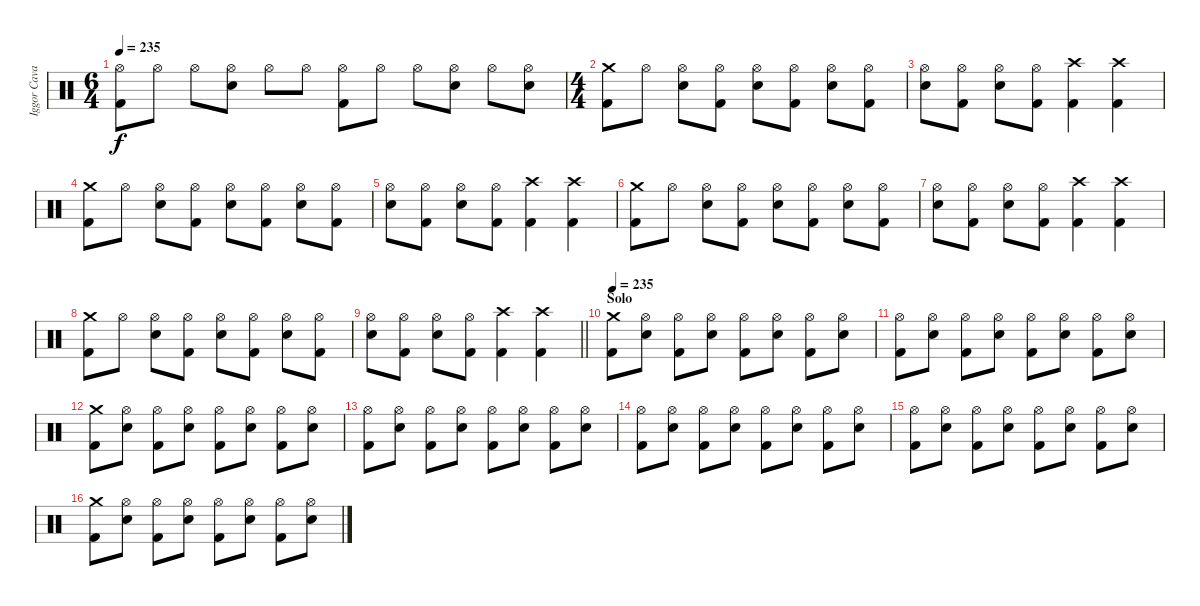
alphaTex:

\track ("Iggor Cavalera" "Iggor Cava") {instrument percussion}
\staff {score}
\articulation defaults
\ts (6 4)
\tempo 235
\clef neutral
\ks c
("Hi-Hat (open)" "Kick (hit) 2").8{dy f} "Hi-Hat (open)".8 "Hi-Hat (open)".8 ("Hi-Hat (open)" "Snare (hit) 2").8 "Hi-Hat (open)".8 "Hi-Hat (open)".8 ("Hi-Hat (open)" "Kick (hit) 2").8 "Hi-Hat (open)".8 "Hi-Hat (open)".8 ("Hi-Hat (open)" "Snare (hit) 2").8 "Hi-Hat (open)".8 ("Hi-Hat (open)" "Snare (hit) 2").8 |
\ts (4 4)
("Crash medium (hit)" "Kick (hit) 2").8 "Hi-Hat (open)".8 ("Hi-Hat (open)" "Snare (hit) 2").8 ("Hi-Hat (open)" "Kick (hit) 2").8 ("Hi-Hat (open)" "Snare (hit) 2").8 ("Hi-Hat (open)" "Kick (hit) 2").8 ("Hi-Hat (open)" "Snare (hit) 2").8 ("Hi-Hat (open)" "Kick (hit) 2").8 |
("Hi-Hat (open)" "Snare (hit) 2").8 ("Hi-Hat (open)" "Kick (hit) 2").8 ("Hi-Hat (open)" "Snare (hit) 2").8 ("Hi-Hat (open)" "Kick (hit) 2").8 ("Crash high (hit)" "Kick (hit) 2").4 ("Crash high (hit)" "Kick (hit) 2").4 |
("Crash medium (hit)" "Kick (hit) 2").8 "Hi-Hat (open)".8 ("Hi-Hat (open)" "Snare (hit) 2").8 ("Hi-Hat (open)" "Kick (hit) 2").8 ("Hi-Hat (open)" "Snare (hit) 2").8 ("Hi-Hat (open)" "Kick (hit) 2").8 ("Hi-Hat (open)" "Snare (hit) 2").8 ("Hi-Hat (open)" "Kick (hit) 2").8 |
("Hi-Hat (open)" "Snare (hit) 2").8 ("Hi-Hat (open)" "Kick (hit) 2").8 ("Hi-Hat (open)" "Snare (hit) 2").8 ("Hi-Hat (open)" "Kick (hit) 2").8 ("Crash high (hit)" "Kick (hit) 2").4 ("Crash high (hit)" "Kick (hit) 2").4 |
("Crash medium (hit)" "Kick (hit) 2").8 "Hi-Hat (open)".8 ("Hi-Hat (open)" "Snare (hit) 2").8 ("Hi-Hat (open)" "Kick (hit) 2").8 ("Hi-Hat (open)" "Snare (hit) 2").8 ("Hi-Hat (open)" "Kick (hit) 2").8 ("Hi-Hat (open)" "Snare (hit) 2").8 ("Hi-Hat (open)" "Kick (hit) 2").8 |
("Hi-Hat (open)" "Snare (hit) 2").8 ("Hi-Hat (open)" "Kick (hit) 2").8 ("Hi-Hat (open)" "Snare (hit) 2").8 ("Hi-Hat (open)" "Kick (hit) 2").8 ("Crash high (hit)" "Kick (hit) 2").4 ("Crash high (hit)" "Kick (hit) 2").4 |
("Crash medium (hit)" "Kick (hit) 2").8 "Hi-Hat (open)".8 ("Hi-Hat (open)" "Snare (hit) 2").8 ("Hi-Hat (open)" "Kick (hit) 2").8 ("Hi-Hat (open)" "Snare (hit) 2").8 ("Hi-Hat (open)" "Kick (hit) 2").8 ("Hi-Hat (open)" "Snare (hit) 2").8 ("Hi-Hat (open)" "Kick (hit) 2").8 |
\barLineRight lightlight
("Hi-Hat (open)" "Snare (hit) 2").8 ("Hi-Hat (open)" "Kick (hit) 2").8 ("Hi-Hat (open)" "Snare (hit) 2").8 ("Hi-Hat (open)" "Kick (hit) 2").8 ("Crash high (hit)" "Kick (hit) 2").4 ("Crash high (hit)" "Kick (hit) 2").4 |
\section ("" "Solo")
\tempo 235
("Crash medium (hit)" "Kick (hit) 2").8 ("Hi-Hat (open)" "Snare (hit) 2").8 ("Hi-Hat (open)" "Kick (hit) 2").8 ("Hi-Hat (open)" "Snare (hit) 2").8 ("Hi-Hat (open)" "Kick (hit) 2").8 ("Hi-Hat (open)" "Snare (hit) 2").8 ("Hi-Hat (open)" "Kick (hit) 2").8 ("Hi-Hat (open)" "Snare (hit) 2").8 |
("Hi-Hat (open)" "Kick (hit) 2").8 ("Hi-Hat (open)" "Snare (hit) 2").8 ("Hi-Hat (open)" "Kick (hit) 2").8 ("Hi-Hat (open)" "Snare (hit) 2").8 ("Hi-Hat (open)" "Kick (hit) 2").8 ("Hi-Hat (open)" "Snare (hit) 2").8 ("Hi-Hat (open)" "Kick (hit) 2").8 ("Hi-Hat (open)" "Snare (hit) 2").8 |
("Crash medium (hit)" "Kick (hit) 2").8 ("Hi-Hat (open)" "Snare (hit) 2").8 ("Hi-Hat (open)" "Kick (hit) 2").8 ("Hi-Hat (open)" "Snare (hit) 2").8 ("Hi-Hat (open)" "Kick (hit) 2").8 ("Hi-Hat (open)" "Snare (hit) 2").8 ("Hi-Hat (open)" "Kick (hit) 2").8 ("Hi-Hat (open)" "Snare (hit) 2").8 |
("Hi-Hat (open)" "Kick (hit) 2").8 ("Hi-Hat (open)" "Snare (hit) 2").8 ("Hi-Hat (open)" "Kick (hit) 2").8 ("Hi-Hat (open)" "Snare (hit) 2").8 ("Hi-Hat (open)" "Kick (hit) 2").8 ("Hi-Hat (open)" "Snare (hit) 2").8 ("Hi-Hat (open)" "Kick (hit) 2").8 ("Hi-Hat (open)" "Snare (hit) 2").8 |
("Hi-Hat (open)" "Kick (hit) 2").8 ("Hi-Hat (open)" "Snare (hit) 2").8 ("Hi-Hat (open)" "Kick (hit) 2").8 ("Hi-Hat (open)" "Snare (hit) 2").8 ("Hi-Hat (open)" "Kick (hit) 2").8 ("Hi-Hat (open)" "Snare (hit) 2").8 ("Hi-Hat (open)" "Kick (hit) 2").8 ("Hi-Hat (open)" "Snare (hit) 2").8 |
("Hi-Hat (open)" "Kick (hit) 2").8 ("Hi-Hat (open)" "Snare (hit) 2").8 ("Hi-Hat (open)" "Kick (hit) 2").8 ("Hi-Hat (open)" "Snare (hit) 2").8 ("Hi-Hat (open)" "Kick (hit) 2").8 ("Hi-Hat (open)" "Snare (hit) 2").8 ("Hi-Hat (open)" "Kick (hit) 2").8 ("Hi-Hat (open)" "Snare (hit) 2").8 |
("Crash medium (hit)" "Kick (hit) 2").8 ("Hi-Hat (open)" "Snare (hit) 2").8 ("Hi-Hat (open)" "Kick (hit) 2").8 ("Hi-Hat (open)" "Snare (hit) 2").8 ("Hi-Hat (open)" "Kick (hit) 2").8 ("Hi-Hat (open)" "Snare (hit) 2").8 ("Hi-Hat (open)" "Kick (hit) 2").8 ("Hi-Hat (open)" "Snare (hit) 2").8
